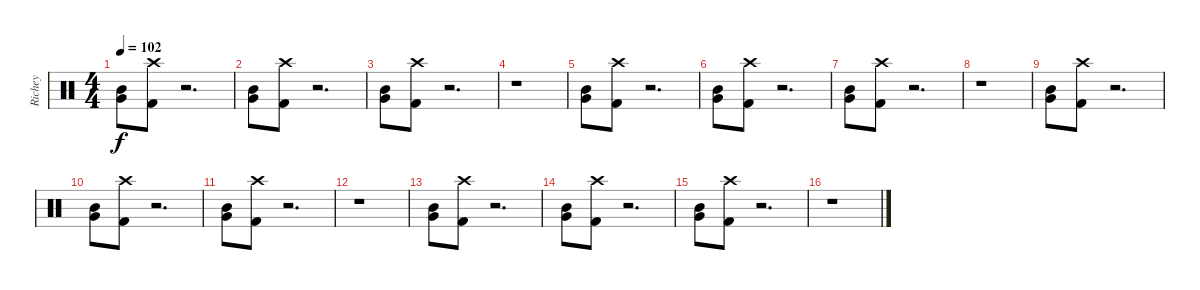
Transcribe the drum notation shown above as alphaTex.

\track ("Richey" "Richey") {instrument percussion}
\staff {score}
\articulation defaults
\ts (4 4)
\tempo 102
\tempo 116
\tempo 102
\clef neutral
\ks c
("Mid Tom (hit)" "Very Low Tom (hit)").8{dy f} ("Crash high (hit)" "Kick (hit) 2").8 r.2{d} |
("Mid Tom (hit)" "Very Low Tom (hit)").8 ("Crash high (hit)" "Kick (hit) 2").8 r.2{d} |
("Mid Tom (hit)" "Very Low Tom (hit)").8 ("Crash high (hit)" "Kick (hit) 2").8 r.2{d} |
r.1 |
("Mid Tom (hit)" "Very Low Tom (hit)").8 ("Crash high (hit)" "Kick (hit) 2").8 r.2{d} |
("Mid Tom (hit)" "Very Low Tom (hit)").8 ("Crash high (hit)" "Kick (hit) 2").8 r.2{d} |
("Mid Tom (hit)" "Very Low Tom (hit)").8 ("Crash high (hit)" "Kick (hit) 2").8 r.2{d} |
r.1 |
("Mid Tom (hit)" "Very Low Tom (hit)").8 ("Crash high (hit)" "Kick (hit) 2").8 r.2{d} |
("Mid Tom (hit)" "Very Low Tom (hit)").8 ("Crash high (hit)" "Kick (hit) 2").8 r.2{d} |
("Mid Tom (hit)" "Very Low Tom (hit)").8 ("Crash high (hit)" "Kick (hit) 2").8 r.2{d} |
r.1 |
("Mid Tom (hit)" "Very Low Tom (hit)").8 ("Crash high (hit)" "Kick (hit) 2").8 r.2{d} |
("Mid Tom (hit)" "Very Low Tom (hit)").8 ("Crash high (hit)" "Kick (hit) 2").8 r.2{d} |
("Mid Tom (hit)" "Very Low Tom (hit)").8 ("Crash high (hit)" "Kick (hit) 2").8 r.2{d} |
r.1
